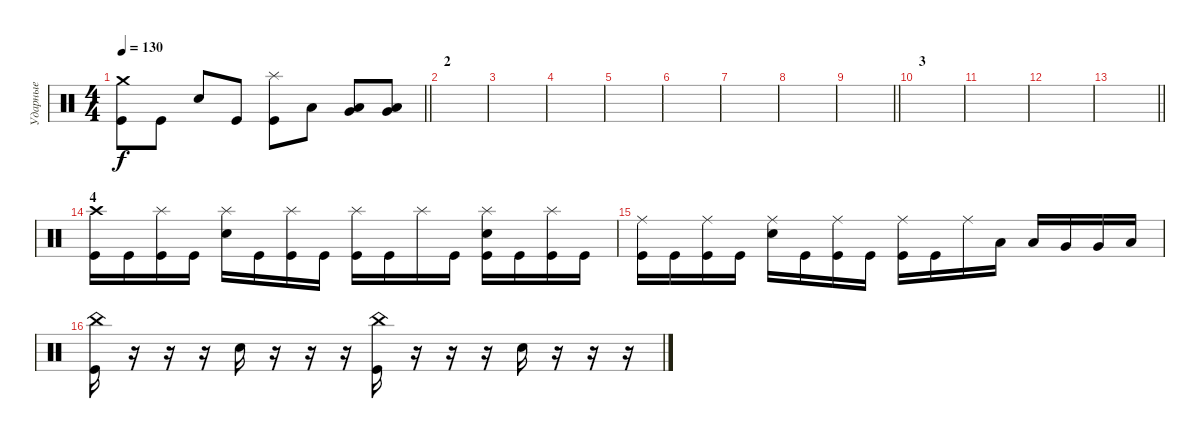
\track ("Ударные" "Ударные") {instrument percussion}
\staff {score}
\articulation defaults
\ts (4 4)
\tempo 130
\clef neutral
\barLineRight lightlight
\ks c
("Crash medium (hit)" "Kick (hit)").8{dy f} "Kick (hit)".8 "Electric Snare (hit)".8 "Kick (hit)".8 ("Splash (hit)" "Kick (hit)").8 "Low Tom (hit)".8 ("Very Low Tom (hit)" "Low Floor Tom (hit)").8 ("Very Low Tom (hit)" "Low Floor Tom (hit)").8 |
\section ("" "2")
|
|
|
|
|
|
|
\barLineRight lightlight
|
\section ("" "3")
|
|
|
\barLineRight lightlight
|
\section ("" "4")
("Crash high (hit)" "Kick (hit)").16 "Kick (hit)".16 ("Splash (hit)" "Kick (hit)").16 "Kick (hit)".16 ("Splash (hit)" "Electric Snare (hit)").16 "Kick (hit)".16 ("Splash (hit)" "Kick (hit)").16 "Kick (hit)".16 ("Splash (hit)" "Kick (hit)").16 "Kick (hit)".16 "Splash (hit)".16 "Kick (hit)".16 ("Splash (hit)" "Electric Snare (hit)" "Kick (hit)").16 "Kick (hit)".16 ("Splash (hit)" "Kick (hit)").16 "Kick (hit)".16 |
("Ride (middle)" "Kick (hit)").16 "Kick (hit)".16 ("Ride (middle)" "Kick (hit)").16 "Kick (hit)".16 ("Ride (middle)" "Electric Snare (hit)").16 "Kick (hit)".16 ("Ride (middle)" "Kick (hit)").16 "Kick (hit)".16 ("Ride (middle)" "Kick (hit)").16 "Kick (hit)".16 "Ride (middle)".16 "Low Tom (hit)".16 "Low Tom (hit)".16 "Very Low Tom (hit)".16 "Very Low Tom (hit)".16 "Low Tom (hit)".16 |
("China (hit)" "Kick (hit)").16 r.16 r.16 r.16 "Electric Snare (hit)".16 r.16 r.16 r.16 ("China (hit)" "Kick (hit)").16 r.16 r.16 r.16 "Electric Snare (hit)".16 r.16 r.16 r.16
